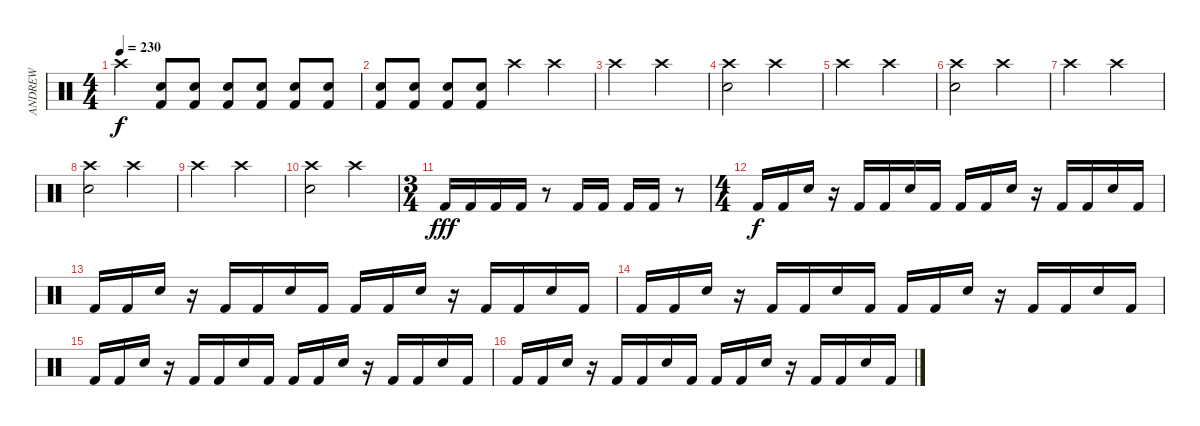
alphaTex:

\track ("ANDREW" "ANDREW") {instrument percussion}
\staff {score}
\articulation defaults
\ts (4 4)
\tempo 230
\clef neutral
\ks c "Crash high (hit)".4{dy f}
("Electric Snare (hit)" "Kick (hit) 2").8 ("Electric Snare (hit)" "Kick (hit) 2").8 ("Electric Snare (hit)" "Kick (hit) 2").8 ("Electric Snare (hit)" "Kick (hit) 2").8 ("Electric Snare (hit)" "Kick (hit) 2").8 ("Electric Snare (hit)" "Kick (hit) 2").8 |
("Electric Snare (hit)" "Kick (hit) 2").8 ("Electric Snare (hit)" "Kick (hit) 2").8 ("Electric Snare (hit)" "Kick (hit) 2").8 ("Electric Snare (hit)" "Kick (hit) 2").8 "Crash high (hit)".4 "Crash high (hit)".4 |
"Crash high (hit)".2 "Crash high (hit)".2 |
("Crash high (hit)" "Electric Snare (hit)").2 "Crash high (hit)".2 |
"Crash high (hit)".2 "Crash high (hit)".2 |
("Crash high (hit)" "Electric Snare (hit)").2 "Crash high (hit)".2 |
"Crash high (hit)".2 "Crash high (hit)".2 |
("Crash high (hit)" "Electric Snare (hit)").2 "Crash high (hit)".2 |
"Crash high (hit)".2 "Crash high (hit)".2 |
("Crash high (hit)" "Electric Snare (hit)").2 "Crash high (hit)".2 |
\ts (3 4)
"Kick (hit) 2".16{dy fff} "Kick (hit) 2".16 "Kick (hit) 2".16 "Kick (hit) 2".16 r.8 "Kick (hit) 2".16 "Kick (hit) 2".16 "Kick (hit) 2".16 "Kick (hit) 2".16 r.8 |
\ts (4 4)
"Kick (hit) 2".16{dy f} "Kick (hit) 2".16 "Electric Snare (hit)".16 r.16 "Kick (hit) 2".16 "Kick (hit) 2".16 "Electric Snare (hit)".16 "Kick (hit) 2".16 "Kick (hit) 2".16 "Kick (hit) 2".16 "Electric Snare (hit)".16 r.16 "Kick (hit) 2".16 "Kick (hit) 2".16 "Electric Snare (hit)".16 "Kick (hit) 2".16 |
"Kick (hit) 2".16 "Kick (hit) 2".16 "Electric Snare (hit)".16 r.16 "Kick (hit) 2".16 "Kick (hit) 2".16 "Electric Snare (hit)".16 "Kick (hit) 2".16 "Kick (hit) 2".16 "Kick (hit) 2".16 "Electric Snare (hit)".16 r.16 "Kick (hit) 2".16 "Kick (hit) 2".16 "Electric Snare (hit)".16 "Kick (hit) 2".16 |
"Kick (hit) 2".16 "Kick (hit) 2".16 "Electric Snare (hit)".16 r.16 "Kick (hit) 2".16 "Kick (hit) 2".16 "Electric Snare (hit)".16 "Kick (hit) 2".16 "Kick (hit) 2".16 "Kick (hit) 2".16 "Electric Snare (hit)".16 r.16 "Kick (hit) 2".16 "Kick (hit) 2".16 "Electric Snare (hit)".16 "Kick (hit) 2".16 |
"Kick (hit) 2".16 "Kick (hit) 2".16 "Electric Snare (hit)".16 r.16 "Kick (hit) 2".16 "Kick (hit) 2".16 "Electric Snare (hit)".16 "Kick (hit) 2".16 "Kick (hit) 2".16 "Kick (hit) 2".16 "Electric Snare (hit)".16 r.16 "Kick (hit) 2".16 "Kick (hit) 2".16 "Electric Snare (hit)".16 "Kick (hit) 2".16 |
"Kick (hit) 2".16 "Kick (hit) 2".16 "Electric Snare (hit)".16 r.16 "Kick (hit) 2".16 "Kick (hit) 2".16 "Electric Snare (hit)".16 "Kick (hit) 2".16 "Kick (hit) 2".16 "Kick (hit) 2".16 "Electric Snare (hit)".16 r.16 "Kick (hit) 2".16 "Kick (hit) 2".16 "Electric Snare (hit)".16 "Kick (hit) 2".16
